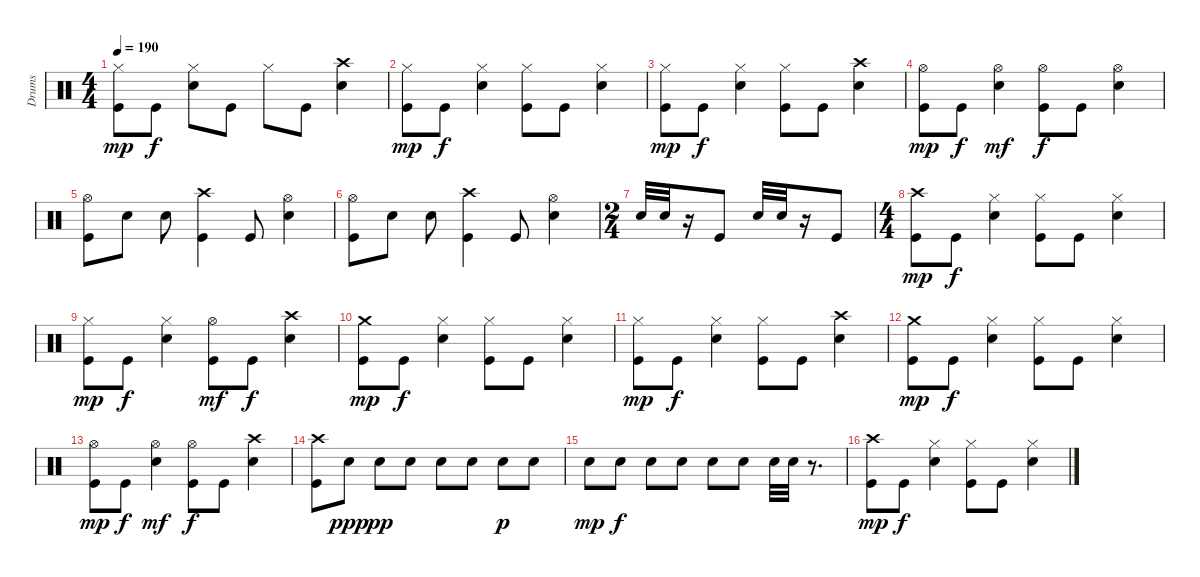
\track ("Drums" "Drums") {instrument percussion}
\staff {score}
\articulation defaults
\ts (4 4)
\tempo 190
\clef neutral
\ks c
("Hi-Hat (closed)" "Kick (hit)").8{dy mp} "Kick (hit)".8{dy f} ("Hi-Hat (closed)" "Snare (hit) 2").8 "Kick (hit)".8 "Hi-Hat (closed)".8 "Kick (hit)".8 ("Crash high (hit)" "Snare (hit) 2").4 |
("Hi-Hat (closed)" "Kick (hit)").8{dy mp} "Kick (hit)".8{dy f} ("Hi-Hat (closed)" "Snare (hit) 2").4 ("Hi-Hat (closed)" "Kick (hit)").8 "Kick (hit)".8 ("Hi-Hat (closed)" "Snare (hit) 2").4 |
("Hi-Hat (closed)" "Kick (hit)").8{dy mp} "Kick (hit)".8{dy f} ("Hi-Hat (closed)" "Snare (hit) 2").4 ("Hi-Hat (closed)" "Kick (hit)").8 "Kick (hit)".8 ("Crash high (hit)" "Snare (hit) 2").4 |
("Hi-Hat (open)" "Kick (hit)").8{dy mp} "Kick (hit)".8{dy f} ("Hi-Hat (open)" "Snare (hit) 2").4{dy mf} ("Hi-Hat (open)" "Kick (hit)").8{dy f} "Kick (hit)".8 ("Hi-Hat (open)" "Snare (hit) 2").4 |
("Hi-Hat (open)" "Kick (hit)").8 "Snare (hit) 2".8 "Snare (hit) 2".8 ("Crash high (hit)" "Kick (hit)").4 "Kick (hit)".8 ("Hi-Hat (open)" "Snare (hit) 2").4 |
("Hi-Hat (open)" "Kick (hit)").8 "Snare (hit) 2".8 "Snare (hit) 2".8 ("Crash high (hit)" "Kick (hit)").4 "Kick (hit)".8 ("Hi-Hat (open)" "Snare (hit) 2").4 |
\ts (2 4)
"Snare (hit) 2".32 "Snare (hit) 2".32 r.16 "Kick (hit)".8 "Snare (hit) 2".32 "Snare (hit) 2".32 r.16 "Kick (hit)".8 |
\ts (4 4)
("Crash high (hit)" "Kick (hit)").8{dy mp} "Kick (hit)".8{dy f} ("Hi-Hat (closed)" "Snare (hit) 2").4 ("Hi-Hat (closed)" "Kick (hit)").8 "Kick (hit)".8 ("Hi-Hat (closed)" "Snare (hit) 2").4 |
("Hi-Hat (closed)" "Kick (hit)").8{dy mp} "Kick (hit)".8{dy f} ("Hi-Hat (closed)" "Snare (hit) 2").4 ("Hi-Hat (open)" "Kick (hit)").8{dy mf} "Kick (hit)".8{dy f} ("Crash high (hit)" "Snare (hit) 2").4 |
("Crash medium (hit)" "Kick (hit)").8{dy mp} "Kick (hit)".8{dy f} ("Hi-Hat (closed)" "Snare (hit) 2").4 ("Hi-Hat (closed)" "Kick (hit)").8 "Kick (hit)".8 ("Hi-Hat (closed)" "Snare (hit) 2").4 |
("Hi-Hat (closed)" "Kick (hit)").8{dy mp} "Kick (hit)".8{dy f} ("Hi-Hat (closed)" "Snare (hit) 2").4 ("Hi-Hat (closed)" "Kick (hit)").8 "Kick (hit)".8 ("Crash high (hit)" "Snare (hit) 2").4 |
("Crash medium (hit)" "Kick (hit)").8{dy mp} "Kick (hit)".8{dy f} ("Hi-Hat (closed)" "Snare (hit) 2").4 ("Hi-Hat (closed)" "Kick (hit)").8 "Kick (hit)".8 ("Hi-Hat (closed)" "Snare (hit) 2").4 |
("Hi-Hat (open)" "Kick (hit)").8{dy mp} "Kick (hit)".8{dy f} ("Hi-Hat (open)" "Snare (hit) 2").4{dy mf} ("Hi-Hat (open)" "Kick (hit)").8{dy f} "Kick (hit)".8 ("Crash high (hit)" "Snare (hit) 2").4 |
("Crash high (hit)" "Kick (hit)").8 "Snare (hit) 2".8{dy ppp} "Snare (hit) 2".8{dy pp} "Snare (hit) 2".8 "Snare (hit) 2".8 "Snare (hit) 2".8 "Snare (hit) 2".8{dy p} "Snare (hit) 2".8 |
"Snare (hit) 2".8{dy mp} "Snare (hit) 2".8{dy f} "Snare (hit) 2".8 "Snare (hit) 2".8 "Snare (hit) 2".8 "Snare (hit) 2".8 "Snare (hit) 2".32 "Snare (hit) 2".32 r.8{d} |
("Crash high (hit)" "Kick (hit)").8{dy mp} "Kick (hit)".8{dy f} ("Hi-Hat (closed)" "Snare (hit) 2").4 ("Hi-Hat (closed)" "Kick (hit)").8 "Kick (hit)".8 ("Hi-Hat (closed)" "Snare (hit) 2").4
